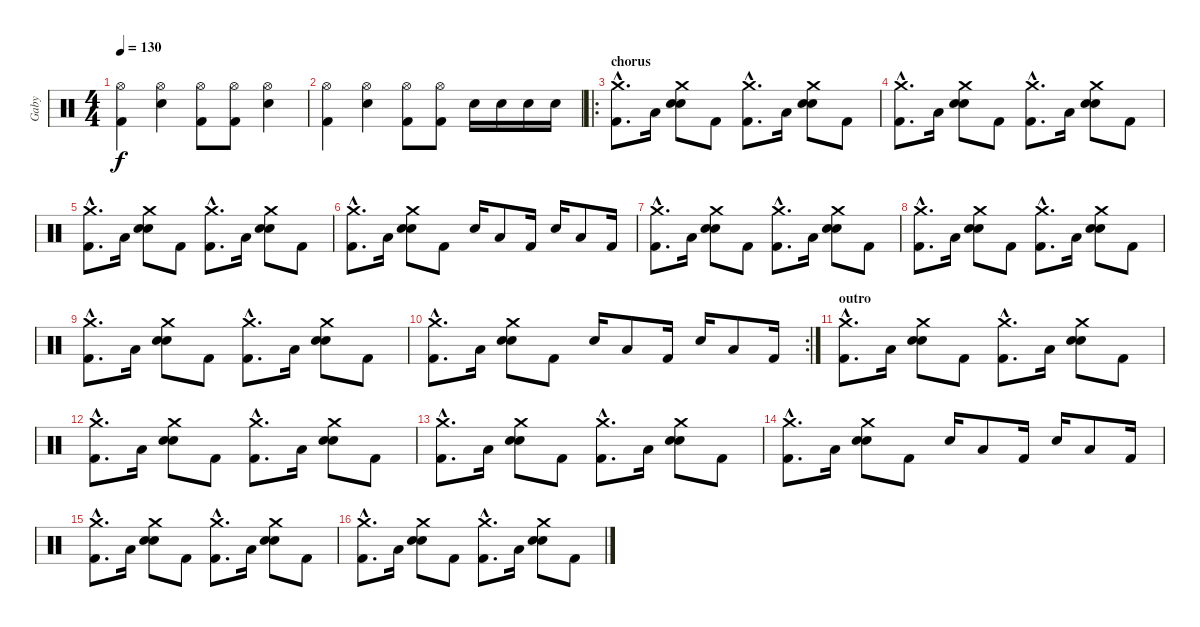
\track ("Gaby" "Gaby") {instrument percussion}
\staff {score}
\articulation defaults
\ts (4 4)
\tempo 130
\clef neutral
\ks c
("Hi-Hat (open)" "Kick (hit) 2").4{dy f} ("Hi-Hat (open)" "Electric Snare (hit)").4 ("Hi-Hat (open)" "Kick (hit) 2").8 ("Hi-Hat (open)" "Kick (hit) 2").8 ("Hi-Hat (open)" "Electric Snare (hit)").4 |
("Hi-Hat (open)" "Kick (hit) 2").4 ("Hi-Hat (open)" "Electric Snare (hit)").4 ("Hi-Hat (open)" "Kick (hit) 2").8 ("Hi-Hat (open)" "Kick (hit) 2").8 "Electric Snare (hit)".16 "Electric Snare (hit)".16 "Electric Snare (hit)".16 "Electric Snare (hit)".16 |
\ro
\section ("" "chorus")
("Crash medium (hit)"{hac} "Kick (hit) 2"{hac}).8{d} "Low Floor Tom (hit)".16 ("Crash medium (hit)" "Electric Snare (hit)" "Electric Snare (hit)").8 "Kick (hit) 2".8 ("Crash medium (hit)"{hac} "Kick (hit) 2"{hac}).8{d} "Low Floor Tom (hit)".16 ("Crash medium (hit)" "Electric Snare (hit)" "Electric Snare (hit)").8 "Kick (hit) 2".8 |
("Crash medium (hit)"{hac} "Kick (hit) 2"{hac}).8{d} "Low Floor Tom (hit)".16 ("Crash medium (hit)" "Electric Snare (hit)" "Electric Snare (hit)").8 "Kick (hit) 2".8 ("Crash medium (hit)"{hac} "Kick (hit) 2"{hac}).8{d} "Low Floor Tom (hit)".16 ("Crash medium (hit)" "Electric Snare (hit)" "Electric Snare (hit)").8 "Kick (hit) 2".8 |
("Crash medium (hit)"{hac} "Kick (hit) 2"{hac}).8{d} "Low Floor Tom (hit)".16 ("Crash medium (hit)" "Electric Snare (hit)" "Electric Snare (hit)").8 "Kick (hit) 2".8 ("Crash medium (hit)"{hac} "Kick (hit) 2"{hac}).8{d} "Low Floor Tom (hit)".16 ("Crash medium (hit)" "Electric Snare (hit)" "Electric Snare (hit)").8 "Kick (hit) 2".8 |
("Crash medium (hit)"{hac} "Kick (hit) 2"{hac}).8{d} "Low Floor Tom (hit)".16 ("Crash medium (hit)" "Electric Snare (hit)" "Electric Snare (hit)").8 "Kick (hit) 2".8 "Electric Snare (hit)".16 "Low Floor Tom (hit)".8 "Kick (hit) 2".16 "Electric Snare (hit)".16 "Low Floor Tom (hit)".8 "Kick (hit) 2".16 |
("Crash medium (hit)"{hac} "Kick (hit) 2"{hac}).8{d} "Low Floor Tom (hit)".16 ("Crash medium (hit)" "Electric Snare (hit)" "Electric Snare (hit)").8 "Kick (hit) 2".8 ("Crash medium (hit)"{hac} "Kick (hit) 2"{hac}).8{d} "Low Floor Tom (hit)".16 ("Crash medium (hit)" "Electric Snare (hit)" "Electric Snare (hit)").8 "Kick (hit) 2".8 |
("Crash medium (hit)"{hac} "Kick (hit) 2"{hac}).8{d} "Low Floor Tom (hit)".16 ("Crash medium (hit)" "Electric Snare (hit)" "Electric Snare (hit)").8 "Kick (hit) 2".8 ("Crash medium (hit)"{hac} "Kick (hit) 2"{hac}).8{d} "Low Floor Tom (hit)".16 ("Crash medium (hit)" "Electric Snare (hit)" "Electric Snare (hit)").8 "Kick (hit) 2".8 |
("Crash medium (hit)"{hac} "Kick (hit) 2"{hac}).8{d} "Low Floor Tom (hit)".16 ("Crash medium (hit)" "Electric Snare (hit)" "Electric Snare (hit)").8 "Kick (hit) 2".8 ("Crash medium (hit)"{hac} "Kick (hit) 2"{hac}).8{d} "Low Floor Tom (hit)".16 ("Crash medium (hit)" "Electric Snare (hit)" "Electric Snare (hit)").8 "Kick (hit) 2".8 |
\rc 2
("Crash medium (hit)"{hac} "Kick (hit) 2"{hac}).8{d} "Low Floor Tom (hit)".16 ("Crash medium (hit)" "Electric Snare (hit)" "Electric Snare (hit)").8 "Kick (hit) 2".8 "Electric Snare (hit)".16 "Low Floor Tom (hit)".8 "Kick (hit) 2".16 "Electric Snare (hit)".16 "Low Floor Tom (hit)".8 "Kick (hit) 2".16 |
\section ("" "outro")
("Crash medium (hit)"{hac} "Kick (hit) 2"{hac}).8{d} "Low Floor Tom (hit)".16 ("Crash medium (hit)" "Electric Snare (hit)" "Electric Snare (hit)").8 "Kick (hit) 2".8 ("Crash medium (hit)"{hac} "Kick (hit) 2"{hac}).8{d} "Low Floor Tom (hit)".16 ("Crash medium (hit)" "Electric Snare (hit)" "Electric Snare (hit)").8 "Kick (hit) 2".8 |
("Crash medium (hit)"{hac} "Kick (hit) 2"{hac}).8{d} "Low Floor Tom (hit)".16 ("Crash medium (hit)" "Electric Snare (hit)" "Electric Snare (hit)").8 "Kick (hit) 2".8 ("Crash medium (hit)"{hac} "Kick (hit) 2"{hac}).8{d} "Low Floor Tom (hit)".16 ("Crash medium (hit)" "Electric Snare (hit)" "Electric Snare (hit)").8 "Kick (hit) 2".8 |
("Crash medium (hit)"{hac} "Kick (hit) 2"{hac}).8{d} "Low Floor Tom (hit)".16 ("Crash medium (hit)" "Electric Snare (hit)" "Electric Snare (hit)").8 "Kick (hit) 2".8 ("Crash medium (hit)"{hac} "Kick (hit) 2"{hac}).8{d} "Low Floor Tom (hit)".16 ("Crash medium (hit)" "Electric Snare (hit)" "Electric Snare (hit)").8 "Kick (hit) 2".8 |
("Crash medium (hit)"{hac} "Kick (hit) 2"{hac}).8{d} "Low Floor Tom (hit)".16 ("Crash medium (hit)" "Electric Snare (hit)" "Electric Snare (hit)").8 "Kick (hit) 2".8 "Electric Snare (hit)".16 "Low Floor Tom (hit)".8 "Kick (hit) 2".16 "Electric Snare (hit)".16 "Low Floor Tom (hit)".8 "Kick (hit) 2".16 |
("Crash medium (hit)"{hac} "Kick (hit) 2"{hac}).8{d} "Low Floor Tom (hit)".16 ("Crash medium (hit)" "Electric Snare (hit)" "Electric Snare (hit)").8 "Kick (hit) 2".8 ("Crash medium (hit)"{hac} "Kick (hit) 2"{hac}).8{d} "Low Floor Tom (hit)".16 ("Crash medium (hit)" "Electric Snare (hit)" "Electric Snare (hit)").8 "Kick (hit) 2".8 |
("Crash medium (hit)"{hac} "Kick (hit) 2"{hac}).8{d} "Low Floor Tom (hit)".16 ("Crash medium (hit)" "Electric Snare (hit)" "Electric Snare (hit)").8 "Kick (hit) 2".8 ("Crash medium (hit)"{hac} "Kick (hit) 2"{hac}).8{d} "Low Floor Tom (hit)".16 ("Crash medium (hit)" "Electric Snare (hit)" "Electric Snare (hit)").8 "Kick (hit) 2".8
